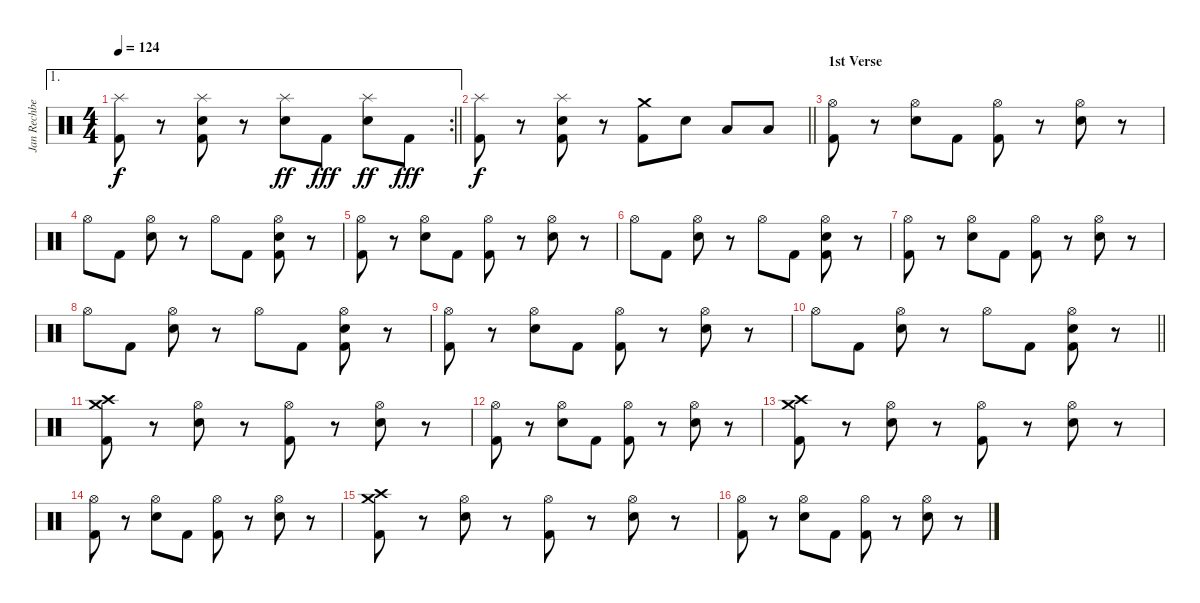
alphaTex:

\track ("Jan Rechberger" "Jan Rechbe") {instrument percussion}
\staff {score}
\articulation defaults
\ae 1
\rc 2
\ts (4 4)
\tempo 124
\clef neutral
\barLineRight lightlight
\ks c
("Splash (hit)" "Kick (hit) 2").8{dy f} r.8 ("Splash (hit)" "Snare (hit) 2" "Kick (hit) 2").8 r.8 ("Splash (hit)" "Snare (hit) 2").8{dy ff} "Kick (hit) 2".8{dy fff} ("Splash (hit)" "Snare (hit) 2").8{dy ff} "Kick (hit) 2".8{dy fff} |
\barLineRight lightlight
("Splash (hit)" "Kick (hit) 2").8{dy f} r.8 ("Splash (hit)" "Snare (hit) 2" "Kick (hit) 2").8 r.8 ("Crash medium (hit)" "Kick (hit) 2").8 "Snare (hit) 2".8 "Low Tom (hit)".8 "Low Tom (hit)".8 |
\section ("" "1st Verse")
("Hi-Hat (open)" "Kick (hit) 2").8 r.8 ("Hi-Hat (open)" "Snare (hit) 2").8 "Kick (hit) 2".8 ("Hi-Hat (open)" "Kick (hit) 2").8 r.8 ("Hi-Hat (open)" "Snare (hit) 2").8 r.8 |
"Hi-Hat (open)".8 "Kick (hit) 2".8 ("Hi-Hat (open)" "Snare (hit) 2").8 r.8 "Hi-Hat (open)".8 "Kick (hit) 2".8 ("Hi-Hat (open)" "Snare (hit) 2" "Kick (hit) 2").8 r.8 |
("Hi-Hat (open)" "Kick (hit) 2").8 r.8 ("Hi-Hat (open)" "Snare (hit) 2").8 "Kick (hit) 2".8 ("Hi-Hat (open)" "Kick (hit) 2").8 r.8 ("Hi-Hat (open)" "Snare (hit) 2").8 r.8 |
"Hi-Hat (open)".8 "Kick (hit) 2".8 ("Hi-Hat (open)" "Snare (hit) 2").8 r.8 "Hi-Hat (open)".8 "Kick (hit) 2".8 ("Hi-Hat (open)" "Snare (hit) 2" "Kick (hit) 2").8 r.8 |
("Hi-Hat (open)" "Kick (hit) 2").8 r.8 ("Hi-Hat (open)" "Snare (hit) 2").8 "Kick (hit) 2".8 ("Hi-Hat (open)" "Kick (hit) 2").8 r.8 ("Hi-Hat (open)" "Snare (hit) 2").8 r.8 |
"Hi-Hat (open)".8 "Kick (hit) 2".8 ("Hi-Hat (open)" "Snare (hit) 2").8 r.8 "Hi-Hat (open)".8 "Kick (hit) 2".8 ("Hi-Hat (open)" "Snare (hit) 2" "Kick (hit) 2").8 r.8 |
("Hi-Hat (open)" "Kick (hit) 2").8 r.8 ("Hi-Hat (open)" "Snare (hit) 2").8 "Kick (hit) 2".8 ("Hi-Hat (open)" "Kick (hit) 2").8 r.8 ("Hi-Hat (open)" "Snare (hit) 2").8 r.8 |
\barLineRight lightlight "Hi-Hat (open)".8 "Kick (hit) 2".8
("Hi-Hat (open)" "Snare (hit) 2").8 r.8 "Hi-Hat (open)".8 "Kick (hit) 2".8 ("Hi-Hat (open)" "Snare (hit) 2" "Kick (hit) 2").8 r.8 |
("Crash medium (hit)" "Crash high (hit)" "Kick (hit) 2").8 r.8 ("Hi-Hat (open)" "Snare (hit) 2").8 r.8 ("Hi-Hat (open)" "Kick (hit) 2").8 r.8 ("Hi-Hat (open)" "Snare (hit) 2").8 r.8 |
("Hi-Hat (open)" "Kick (hit) 2").8 r.8 ("Hi-Hat (open)" "Snare (hit) 2").8 "Kick (hit) 2".8 ("Hi-Hat (open)" "Kick (hit) 2").8 r.8 ("Hi-Hat (open)" "Snare (hit) 2").8 r.8 |
("Crash medium (hit)" "Crash high (hit)" "Kick (hit) 2").8 r.8 ("Hi-Hat (open)" "Snare (hit) 2").8 r.8 ("Hi-Hat (open)" "Kick (hit) 2").8 r.8 ("Hi-Hat (open)" "Snare (hit) 2").8 r.8 |
("Hi-Hat (open)" "Kick (hit) 2").8 r.8 ("Hi-Hat (open)" "Snare (hit) 2").8 "Kick (hit) 2".8 ("Hi-Hat (open)" "Kick (hit) 2").8 r.8 ("Hi-Hat (open)" "Snare (hit) 2").8 r.8 |
("Crash medium (hit)" "Crash high (hit)" "Kick (hit) 2").8 r.8 ("Hi-Hat (open)" "Snare (hit) 2").8 r.8 ("Hi-Hat (open)" "Kick (hit) 2").8 r.8 ("Hi-Hat (open)" "Snare (hit) 2").8 r.8 |
("Hi-Hat (open)" "Kick (hit) 2").8 r.8 ("Hi-Hat (open)" "Snare (hit) 2").8 "Kick (hit) 2".8 ("Hi-Hat (open)" "Kick (hit) 2").8 r.8 ("Hi-Hat (open)" "Snare (hit) 2").8 r.8
